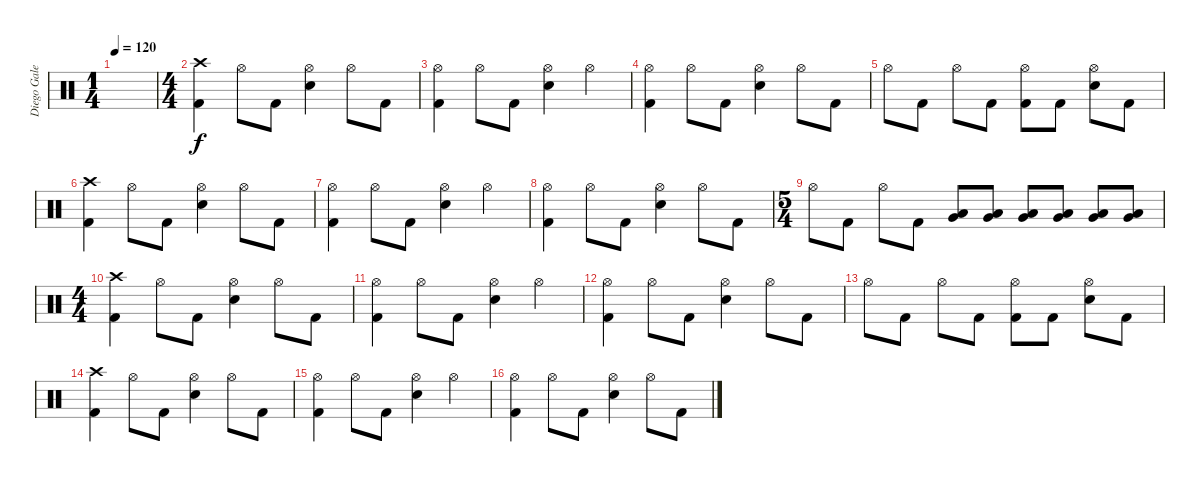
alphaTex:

\track ("Diego Galeri (batteria)" "Diego Gale") {instrument percussion}
\staff {score}
\articulation defaults
\ts (1 4)
\tempo 120
\clef neutral
\ks c
|
\ts (4 4)
("Kick (hit) 2" "Crash high (hit)").4 "Hi-Hat (open)".8 "Kick (hit) 2".8 ("Hi-Hat (open)" "Electric Snare (hit)").4 "Hi-Hat (open)".8 "Kick (hit) 2".8 |
("Hi-Hat (open)" "Kick (hit) 2").4 "Hi-Hat (open)".8 "Kick (hit) 2".8 ("Hi-Hat (open)" "Electric Snare (hit)").4 "Hi-Hat (open)".4 |
("Hi-Hat (open)" "Kick (hit) 2").4 "Hi-Hat (open)".8 "Kick (hit) 2".8 ("Hi-Hat (open)" "Electric Snare (hit)").4 "Hi-Hat (open)".8 "Kick (hit) 2".8 |
"Hi-Hat (open)".8 "Kick (hit) 2".8 "Hi-Hat (open)".8 "Kick (hit) 2".8 ("Hi-Hat (open)" "Kick (hit) 2").8 "Kick (hit) 2".8 ("Hi-Hat (open)" "Electric Snare (hit)").8 "Kick (hit) 2".8 |
("Kick (hit) 2" "Crash high (hit)").4 "Hi-Hat (open)".8 "Kick (hit) 2".8 ("Hi-Hat (open)" "Electric Snare (hit)").4 "Hi-Hat (open)".8 "Kick (hit) 2".8 |
("Hi-Hat (open)" "Kick (hit) 2").4 "Hi-Hat (open)".8 "Kick (hit) 2".8 ("Hi-Hat (open)" "Electric Snare (hit)").4 "Hi-Hat (open)".4 |
("Hi-Hat (open)" "Kick (hit) 2").4 "Hi-Hat (open)".8 "Kick (hit) 2".8 ("Hi-Hat (open)" "Electric Snare (hit)").4 "Hi-Hat (open)".8 "Kick (hit) 2".8 |
\ts (5 4)
"Hi-Hat (open)".8 "Kick (hit) 2".8 "Hi-Hat (open)".8 "Kick (hit) 2".8 ("Low Tom (hit)" "Very Low Tom (hit)").8 ("Low Tom (hit)" "Very Low Tom (hit)").8 ("Low Tom (hit)" "Very Low Tom (hit)").8 ("Low Tom (hit)" "Very Low Tom (hit)").8 ("Low Tom (hit)" "Very Low Tom (hit)").8 ("Low Tom (hit)" "Very Low Tom (hit)").8 |
\ts (4 4)
("Kick (hit) 2" "Crash high (hit)").4 "Hi-Hat (open)".8 "Kick (hit) 2".8 ("Hi-Hat (open)" "Electric Snare (hit)").4 "Hi-Hat (open)".8 "Kick (hit) 2".8 |
("Hi-Hat (open)" "Kick (hit) 2").4 "Hi-Hat (open)".8 "Kick (hit) 2".8 ("Hi-Hat (open)" "Electric Snare (hit)").4 "Hi-Hat (open)".4 |
("Hi-Hat (open)" "Kick (hit) 2").4 "Hi-Hat (open)".8 "Kick (hit) 2".8 ("Hi-Hat (open)" "Electric Snare (hit)").4 "Hi-Hat (open)".8 "Kick (hit) 2".8 |
"Hi-Hat (open)".8 "Kick (hit) 2".8 "Hi-Hat (open)".8 "Kick (hit) 2".8 ("Hi-Hat (open)" "Kick (hit) 2").8 "Kick (hit) 2".8 ("Hi-Hat (open)" "Electric Snare (hit)").8 "Kick (hit) 2".8 |
("Kick (hit) 2" "Crash high (hit)").4 "Hi-Hat (open)".8 "Kick (hit) 2".8 ("Hi-Hat (open)" "Electric Snare (hit)").4 "Hi-Hat (open)".8 "Kick (hit) 2".8 |
("Hi-Hat (open)" "Kick (hit) 2").4 "Hi-Hat (open)".8 "Kick (hit) 2".8 ("Hi-Hat (open)" "Electric Snare (hit)").4 "Hi-Hat (open)".4 |
("Hi-Hat (open)" "Kick (hit) 2").4 "Hi-Hat (open)".8 "Kick (hit) 2".8 ("Hi-Hat (open)" "Electric Snare (hit)").4 "Hi-Hat (open)".8 "Kick (hit) 2".8
